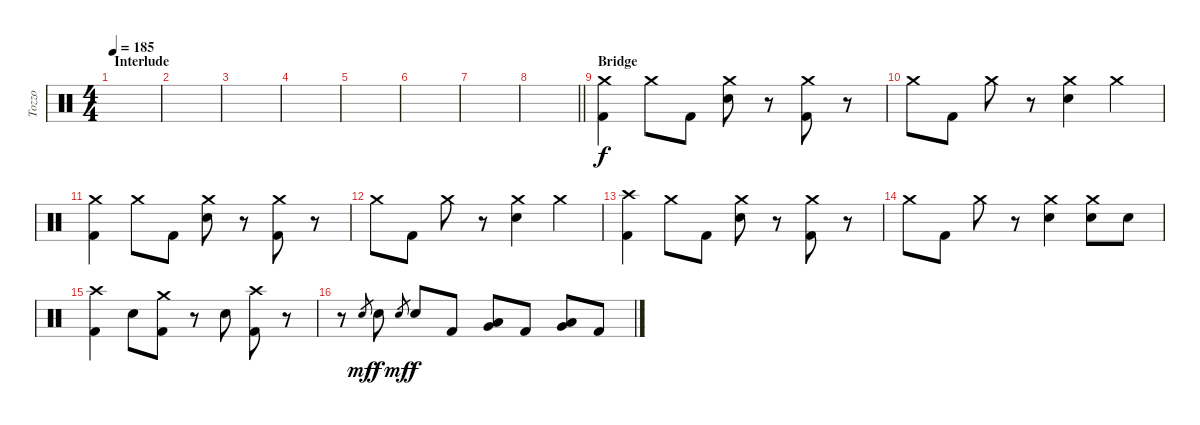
\track ("Tozzo" "Tozzo") {instrument percussion}
\staff {score}
\articulation defaults
\ts (4 4)
\section ("" "Interlude")
\tempo 185
\clef neutral
\ks c
|
|
|
|
|
|
|
\barLineRight lightlight
|
\section ("" "Bridge")
("Crash medium (hit)" "Kick (hit) 2").4 "Crash medium (hit)".8 "Kick (hit) 2".8 ("Crash medium (hit)" "Electric Snare (hit)").8 r.8 ("Crash medium (hit)" "Kick (hit) 2").8 r.8 |
"Crash medium (hit)".8 "Kick (hit) 2".8 "Crash medium (hit)".8 r.8 ("Crash medium (hit)" "Electric Snare (hit)").4 "Crash medium (hit)".4 |
("Crash medium (hit)" "Kick (hit) 2").4 "Crash medium (hit)".8 "Kick (hit) 2".8 ("Crash medium (hit)" "Electric Snare (hit)").8 r.8 ("Crash medium (hit)" "Kick (hit) 2").8 r.8 |
"Crash medium (hit)".8 "Kick (hit) 2".8 "Crash medium (hit)".8 r.8 ("Crash medium (hit)" "Electric Snare (hit)").4 "Crash medium (hit)".4 |
("Crash high (hit)" "Kick (hit) 2").4 "Crash medium (hit)".8 "Kick (hit) 2".8 ("Crash medium (hit)" "Electric Snare (hit)").8 r.8 ("Crash medium (hit)" "Kick (hit) 2").8 r.8 |
"Crash medium (hit)".8 "Kick (hit) 2".8 "Crash medium (hit)".8 r.8 ("Crash medium (hit)" "Electric Snare (hit)").4 ("Crash medium (hit)" "Electric Snare (hit)").8 "Electric Snare (hit)".8 |
("Crash high (hit)" "Kick (hit) 2").4 "Electric Snare (hit)".8 ("Crash medium (hit)" "Kick (hit) 2").8 r.8 "Electric Snare (hit)".8 ("Crash high (hit)" "Kick (hit) 2").8 r.8 |
r.8 "Electric Snare (hit)".8{gr dy mf} "Electric Snare (hit)".8{dy f} "Electric Snare (hit)".8{gr dy mf} "Electric Snare (hit)".8{dy f} "Kick (hit) 2".8 ("Low Tom (hit)" "Very Low Tom (hit)").8 "Kick (hit) 2".8 ("Very Low Tom (hit)" "Low Floor Tom (hit)").8 "Kick (hit) 2".8
